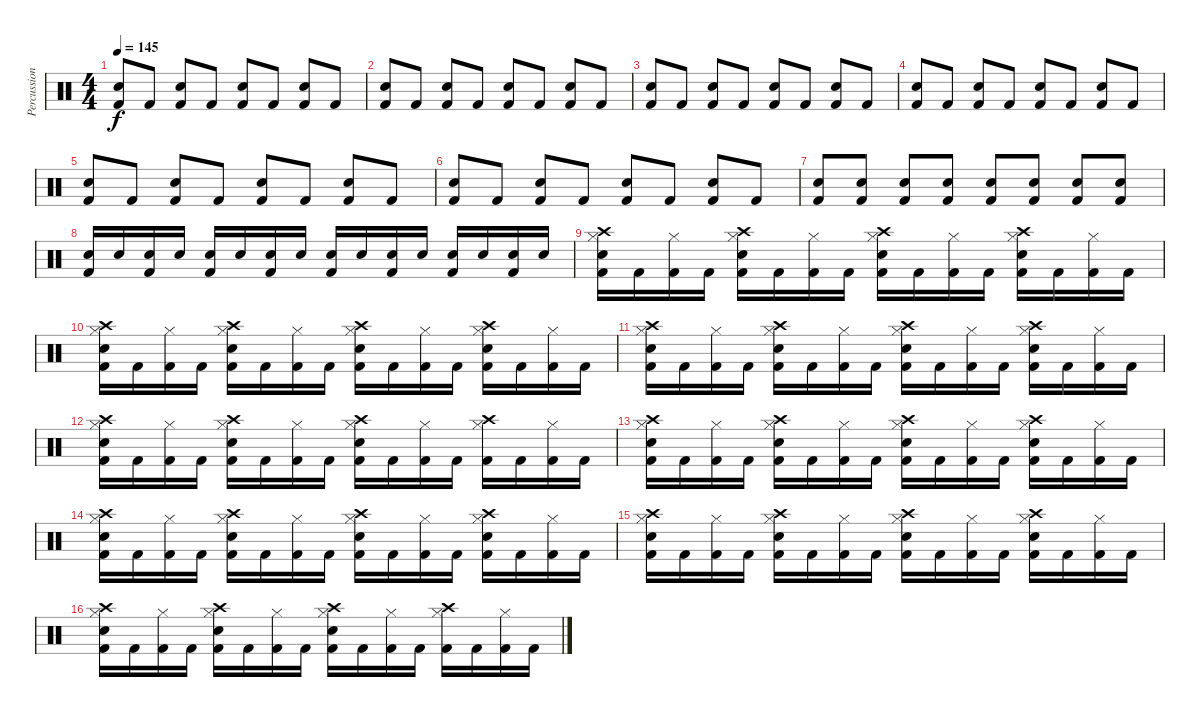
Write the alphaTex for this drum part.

\track ("Percussions" "Percussion") {instrument percussion}
\staff {score}
\articulation defaults
\ts (4 4)
\tempo 145
\clef neutral
\ks c
("Kick (hit) 2" "Snare (hit) 2").8{dy f} "Kick (hit) 2".8 ("Kick (hit) 2" "Snare (hit) 2").8 "Kick (hit) 2".8 ("Kick (hit) 2" "Snare (hit) 2").8 "Kick (hit) 2".8 ("Kick (hit) 2" "Snare (hit) 2").8 "Kick (hit) 2".8 |
("Kick (hit) 2" "Snare (hit) 2").8 "Kick (hit) 2".8 ("Kick (hit) 2" "Snare (hit) 2").8 "Kick (hit) 2".8 ("Kick (hit) 2" "Snare (hit) 2").8 "Kick (hit) 2".8 ("Kick (hit) 2" "Snare (hit) 2").8 "Kick (hit) 2".8 |
("Kick (hit) 2" "Snare (hit) 2").8 "Kick (hit) 2".8 ("Kick (hit) 2" "Snare (hit) 2").8 "Kick (hit) 2".8 ("Kick (hit) 2" "Snare (hit) 2").8 "Kick (hit) 2".8 ("Kick (hit) 2" "Snare (hit) 2").8 "Kick (hit) 2".8 |
("Kick (hit) 2" "Snare (hit) 2").8 "Kick (hit) 2".8 ("Kick (hit) 2" "Snare (hit) 2").8 "Kick (hit) 2".8 ("Kick (hit) 2" "Snare (hit) 2").8 "Kick (hit) 2".8 ("Kick (hit) 2" "Snare (hit) 2").8 "Kick (hit) 2".8 |
("Kick (hit) 2" "Snare (hit) 2").8 "Kick (hit) 2".8 ("Kick (hit) 2" "Snare (hit) 2").8 "Kick (hit) 2".8 ("Kick (hit) 2" "Snare (hit) 2").8 "Kick (hit) 2".8 ("Kick (hit) 2" "Snare (hit) 2").8 "Kick (hit) 2".8 |
("Kick (hit) 2" "Snare (hit) 2").8 "Kick (hit) 2".8 ("Kick (hit) 2" "Snare (hit) 2").8 "Kick (hit) 2".8 ("Kick (hit) 2" "Snare (hit) 2").8 "Kick (hit) 2".8 ("Kick (hit) 2" "Snare (hit) 2").8 "Kick (hit) 2".8 |
("Kick (hit) 2" "Snare (hit) 2").8 ("Kick (hit) 2" "Snare (hit) 2").8 ("Kick (hit) 2" "Snare (hit) 2").8 ("Kick (hit) 2" "Snare (hit) 2").8 ("Kick (hit) 2" "Snare (hit) 2").8 ("Kick (hit) 2" "Snare (hit) 2").8 ("Kick (hit) 2" "Snare (hit) 2").8 ("Kick (hit) 2" "Snare (hit) 2").8 |
("Kick (hit) 2" "Snare (hit) 2").16 "Snare (hit) 2".16 ("Kick (hit) 2" "Snare (hit) 2").16 "Snare (hit) 2".16 ("Kick (hit) 2" "Snare (hit) 2").16 "Snare (hit) 2".16 ("Kick (hit) 2" "Snare (hit) 2").16 "Snare (hit) 2".16 ("Kick (hit) 2" "Snare (hit) 2").16 "Snare (hit) 2".16 ("Kick (hit) 2" "Snare (hit) 2").16 "Snare (hit) 2".16 ("Kick (hit) 2" "Snare (hit) 2").16 "Snare (hit) 2".16 ("Kick (hit) 2" "Snare (hit) 2").16 "Snare (hit) 2".16 |
("Crash high (hit)" "Hi-Hat (closed)" "Kick (hit) 2" "Snare (hit) 2").16 "Kick (hit) 2".16 ("Hi-Hat (closed)" "Kick (hit) 2").16 "Kick (hit) 2".16 ("Crash high (hit)" "Hi-Hat (closed)" "Kick (hit) 2" "Snare (hit) 2").16 "Kick (hit) 2".16 ("Hi-Hat (closed)" "Kick (hit) 2").16 "Kick (hit) 2".16 ("Crash high (hit)" "Hi-Hat (closed)" "Kick (hit) 2" "Snare (hit) 2").16 "Kick (hit) 2".16 ("Hi-Hat (closed)" "Kick (hit) 2").16 "Kick (hit) 2".16 ("Crash high (hit)" "Hi-Hat (closed)" "Kick (hit) 2" "Snare (hit) 2").16 "Kick (hit) 2".16 ("Hi-Hat (closed)" "Kick (hit) 2").16 "Kick (hit) 2".16 |
("Hi-Hat (closed)" "Crash high (hit)" "Kick (hit) 2" "Snare (hit) 2").16 "Kick (hit) 2".16 ("Hi-Hat (closed)" "Kick (hit) 2").16 "Kick (hit) 2".16 ("Hi-Hat (closed)" "Crash high (hit)" "Kick (hit) 2" "Snare (hit) 2").16 "Kick (hit) 2".16 ("Hi-Hat (closed)" "Kick (hit) 2").16 "Kick (hit) 2".16 ("Hi-Hat (closed)" "Crash high (hit)" "Kick (hit) 2" "Snare (hit) 2").16 "Kick (hit) 2".16 ("Hi-Hat (closed)" "Kick (hit) 2").16 "Kick (hit) 2".16 ("Hi-Hat (closed)" "Crash high (hit)" "Kick (hit) 2" "Snare (hit) 2").16 "Kick (hit) 2".16 ("Hi-Hat (closed)" "Kick (hit) 2").16 "Kick (hit) 2".16 |
("Hi-Hat (closed)" "Crash high (hit)" "Kick (hit) 2" "Snare (hit) 2").16 "Kick (hit) 2".16 ("Hi-Hat (closed)" "Kick (hit) 2").16 "Kick (hit) 2".16 ("Hi-Hat (closed)" "Crash high (hit)" "Kick (hit) 2" "Snare (hit) 2").16 "Kick (hit) 2".16 ("Hi-Hat (closed)" "Kick (hit) 2").16 "Kick (hit) 2".16 ("Hi-Hat (closed)" "Crash high (hit)" "Kick (hit) 2" "Snare (hit) 2").16 "Kick (hit) 2".16 ("Hi-Hat (closed)" "Kick (hit) 2").16 "Kick (hit) 2".16 ("Hi-Hat (closed)" "Crash high (hit)" "Kick (hit) 2" "Snare (hit) 2").16 "Kick (hit) 2".16 ("Hi-Hat (closed)" "Kick (hit) 2").16 "Kick (hit) 2".16 |
("Hi-Hat (closed)" "Crash high (hit)" "Kick (hit) 2" "Snare (hit) 2").16 "Kick (hit) 2".16 ("Hi-Hat (closed)" "Kick (hit) 2").16 "Kick (hit) 2".16 ("Hi-Hat (closed)" "Crash high (hit)" "Kick (hit) 2" "Snare (hit) 2").16 "Kick (hit) 2".16 ("Hi-Hat (closed)" "Kick (hit) 2").16 "Kick (hit) 2".16 ("Hi-Hat (closed)" "Crash high (hit)" "Kick (hit) 2" "Snare (hit) 2").16 "Kick (hit) 2".16 ("Hi-Hat (closed)" "Kick (hit) 2").16 "Kick (hit) 2".16 ("Hi-Hat (closed)" "Crash high (hit)" "Kick (hit) 2").16 "Kick (hit) 2".16 ("Hi-Hat (closed)" "Kick (hit) 2").16 "Kick (hit) 2".16 |
("Crash high (hit)" "Hi-Hat (closed)" "Kick (hit) 2" "Snare (hit) 2").16 "Kick (hit) 2".16 ("Hi-Hat (closed)" "Kick (hit) 2").16 "Kick (hit) 2".16 ("Crash high (hit)" "Hi-Hat (closed)" "Kick (hit) 2" "Snare (hit) 2").16 "Kick (hit) 2".16 ("Hi-Hat (closed)" "Kick (hit) 2").16 "Kick (hit) 2".16 ("Crash high (hit)" "Hi-Hat (closed)" "Kick (hit) 2" "Snare (hit) 2").16 "Kick (hit) 2".16 ("Hi-Hat (closed)" "Kick (hit) 2").16 "Kick (hit) 2".16 ("Crash high (hit)" "Hi-Hat (closed)" "Kick (hit) 2" "Snare (hit) 2").16 "Kick (hit) 2".16 ("Hi-Hat (closed)" "Kick (hit) 2").16 "Kick (hit) 2".16 |
("Hi-Hat (closed)" "Crash high (hit)" "Kick (hit) 2" "Snare (hit) 2").16 "Kick (hit) 2".16 ("Hi-Hat (closed)" "Kick (hit) 2").16 "Kick (hit) 2".16 ("Hi-Hat (closed)" "Crash high (hit)" "Kick (hit) 2" "Snare (hit) 2").16 "Kick (hit) 2".16 ("Hi-Hat (closed)" "Kick (hit) 2").16 "Kick (hit) 2".16 ("Hi-Hat (closed)" "Crash high (hit)" "Kick (hit) 2" "Snare (hit) 2").16 "Kick (hit) 2".16 ("Hi-Hat (closed)" "Kick (hit) 2").16 "Kick (hit) 2".16 ("Hi-Hat (closed)" "Crash high (hit)" "Kick (hit) 2" "Snare (hit) 2").16 "Kick (hit) 2".16 ("Hi-Hat (closed)" "Kick (hit) 2").16 "Kick (hit) 2".16 |
("Hi-Hat (closed)" "Crash high (hit)" "Kick (hit) 2" "Snare (hit) 2").16 "Kick (hit) 2".16 ("Hi-Hat (closed)" "Kick (hit) 2").16 "Kick (hit) 2".16 ("Hi-Hat (closed)" "Crash high (hit)" "Kick (hit) 2" "Snare (hit) 2").16 "Kick (hit) 2".16 ("Hi-Hat (closed)" "Kick (hit) 2").16 "Kick (hit) 2".16 ("Hi-Hat (closed)" "Crash high (hit)" "Kick (hit) 2" "Snare (hit) 2").16 "Kick (hit) 2".16 ("Hi-Hat (closed)" "Kick (hit) 2").16 "Kick (hit) 2".16 ("Hi-Hat (closed)" "Crash high (hit)" "Kick (hit) 2" "Snare (hit) 2").16 "Kick (hit) 2".16 ("Hi-Hat (closed)" "Kick (hit) 2").16 "Kick (hit) 2".16 |
("Hi-Hat (closed)" "Crash high (hit)" "Kick (hit) 2" "Snare (hit) 2").16 "Kick (hit) 2".16 ("Hi-Hat (closed)" "Kick (hit) 2").16 "Kick (hit) 2".16 ("Hi-Hat (closed)" "Crash high (hit)" "Kick (hit) 2" "Snare (hit) 2").16 "Kick (hit) 2".16 ("Hi-Hat (closed)" "Kick (hit) 2").16 "Kick (hit) 2".16 ("Hi-Hat (closed)" "Crash high (hit)" "Kick (hit) 2" "Snare (hit) 2").16 "Kick (hit) 2".16 ("Hi-Hat (closed)" "Kick (hit) 2").16 "Kick (hit) 2".16 ("Hi-Hat (closed)" "Crash high (hit)" "Kick (hit) 2").16 "Kick (hit) 2".16 ("Hi-Hat (closed)" "Kick (hit) 2").16 "Kick (hit) 2".16
